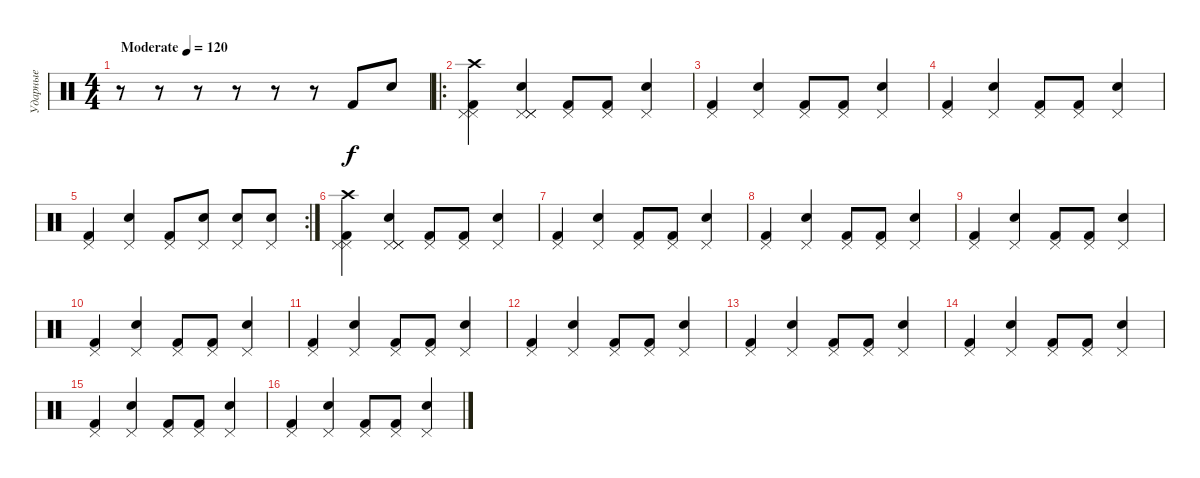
\track ("Ударные" "Ударные") {instrument percussion}
\staff {score}
\articulation defaults
\ts (4 4)
\tempo (120 "Moderate")
\clef neutral
\ks c
r.8{dy f} r.8 r.8 r.8 r.8 r.8 "Kick (hit) 2".8 "Electric Snare (hit)".8 |
\ro
("Kick (hit) 2" "Pedal Hi-Hat (hit)" "Crash high (hit)" "Pedal Hi-Hat (hit)").4 ("Electric Snare (hit)" "Pedal Hi-Hat (hit)" "Pedal Hi-Hat (hit)" "Pedal Hi-Hat (hit)").4 ("Kick (hit) 2" "Pedal Hi-Hat (hit)").8 ("Kick (hit) 2" "Pedal Hi-Hat (hit)").8 ("Electric Snare (hit)" "Pedal Hi-Hat (hit)").4 |
("Kick (hit) 2" "Pedal Hi-Hat (hit)").4 ("Electric Snare (hit)" "Pedal Hi-Hat (hit)").4 ("Kick (hit) 2" "Pedal Hi-Hat (hit)").8 ("Kick (hit) 2" "Pedal Hi-Hat (hit)").8 ("Electric Snare (hit)" "Pedal Hi-Hat (hit)").4 |
("Kick (hit) 2" "Pedal Hi-Hat (hit)").4 ("Electric Snare (hit)" "Pedal Hi-Hat (hit)").4 ("Kick (hit) 2" "Pedal Hi-Hat (hit)").8 ("Kick (hit) 2" "Pedal Hi-Hat (hit)").8 ("Electric Snare (hit)" "Pedal Hi-Hat (hit)").4 |
\rc 2
("Kick (hit) 2" "Pedal Hi-Hat (hit)").4 ("Electric Snare (hit)" "Pedal Hi-Hat (hit)").4 ("Kick (hit) 2" "Pedal Hi-Hat (hit)").8 ("Electric Snare (hit)" "Pedal Hi-Hat (hit)").8 ("Electric Snare (hit)" "Pedal Hi-Hat (hit)").8 ("Electric Snare (hit)" "Pedal Hi-Hat (hit)").8 |
("Kick (hit) 2" "Pedal Hi-Hat (hit)" "Crash high (hit)" "Pedal Hi-Hat (hit)").4 ("Electric Snare (hit)" "Pedal Hi-Hat (hit)" "Pedal Hi-Hat (hit)" "Pedal Hi-Hat (hit)").4 ("Kick (hit) 2" "Pedal Hi-Hat (hit)").8 ("Kick (hit) 2" "Pedal Hi-Hat (hit)").8 ("Electric Snare (hit)" "Pedal Hi-Hat (hit)").4 |
("Kick (hit) 2" "Pedal Hi-Hat (hit)").4 ("Electric Snare (hit)" "Pedal Hi-Hat (hit)").4 ("Kick (hit) 2" "Pedal Hi-Hat (hit)").8 ("Kick (hit) 2" "Pedal Hi-Hat (hit)").8 ("Electric Snare (hit)" "Pedal Hi-Hat (hit)").4 |
("Kick (hit) 2" "Pedal Hi-Hat (hit)").4 ("Electric Snare (hit)" "Pedal Hi-Hat (hit)").4 ("Kick (hit) 2" "Pedal Hi-Hat (hit)").8 ("Kick (hit) 2" "Pedal Hi-Hat (hit)").8 ("Electric Snare (hit)" "Pedal Hi-Hat (hit)").4 |
("Kick (hit) 2" "Pedal Hi-Hat (hit)").4 ("Electric Snare (hit)" "Pedal Hi-Hat (hit)").4 ("Kick (hit) 2" "Pedal Hi-Hat (hit)").8 ("Kick (hit) 2" "Pedal Hi-Hat (hit)").8 ("Electric Snare (hit)" "Pedal Hi-Hat (hit)").4 |
("Kick (hit) 2" "Pedal Hi-Hat (hit)").4 ("Electric Snare (hit)" "Pedal Hi-Hat (hit)").4 ("Kick (hit) 2" "Pedal Hi-Hat (hit)").8 ("Kick (hit) 2" "Pedal Hi-Hat (hit)").8 ("Electric Snare (hit)" "Pedal Hi-Hat (hit)").4 |
("Kick (hit) 2" "Pedal Hi-Hat (hit)").4 ("Electric Snare (hit)" "Pedal Hi-Hat (hit)").4 ("Kick (hit) 2" "Pedal Hi-Hat (hit)").8 ("Kick (hit) 2" "Pedal Hi-Hat (hit)").8 ("Electric Snare (hit)" "Pedal Hi-Hat (hit)").4 |
("Kick (hit) 2" "Pedal Hi-Hat (hit)").4 ("Electric Snare (hit)" "Pedal Hi-Hat (hit)").4 ("Kick (hit) 2" "Pedal Hi-Hat (hit)").8 ("Kick (hit) 2" "Pedal Hi-Hat (hit)").8 ("Electric Snare (hit)" "Pedal Hi-Hat (hit)").4 |
("Kick (hit) 2" "Pedal Hi-Hat (hit)").4 ("Electric Snare (hit)" "Pedal Hi-Hat (hit)").4 ("Kick (hit) 2" "Pedal Hi-Hat (hit)").8 ("Kick (hit) 2" "Pedal Hi-Hat (hit)").8 ("Electric Snare (hit)" "Pedal Hi-Hat (hit)").4 |
("Kick (hit) 2" "Pedal Hi-Hat (hit)").4 ("Electric Snare (hit)" "Pedal Hi-Hat (hit)").4 ("Kick (hit) 2" "Pedal Hi-Hat (hit)").8 ("Kick (hit) 2" "Pedal Hi-Hat (hit)").8 ("Electric Snare (hit)" "Pedal Hi-Hat (hit)").4 |
("Kick (hit) 2" "Pedal Hi-Hat (hit)").4 ("Electric Snare (hit)" "Pedal Hi-Hat (hit)").4 ("Kick (hit) 2" "Pedal Hi-Hat (hit)").8 ("Kick (hit) 2" "Pedal Hi-Hat (hit)").8 ("Electric Snare (hit)" "Pedal Hi-Hat (hit)").4 |
("Kick (hit) 2" "Pedal Hi-Hat (hit)").4 ("Electric Snare (hit)" "Pedal Hi-Hat (hit)").4 ("Kick (hit) 2" "Pedal Hi-Hat (hit)").8 ("Kick (hit) 2" "Pedal Hi-Hat (hit)").8 ("Electric Snare (hit)" "Pedal Hi-Hat (hit)").4
